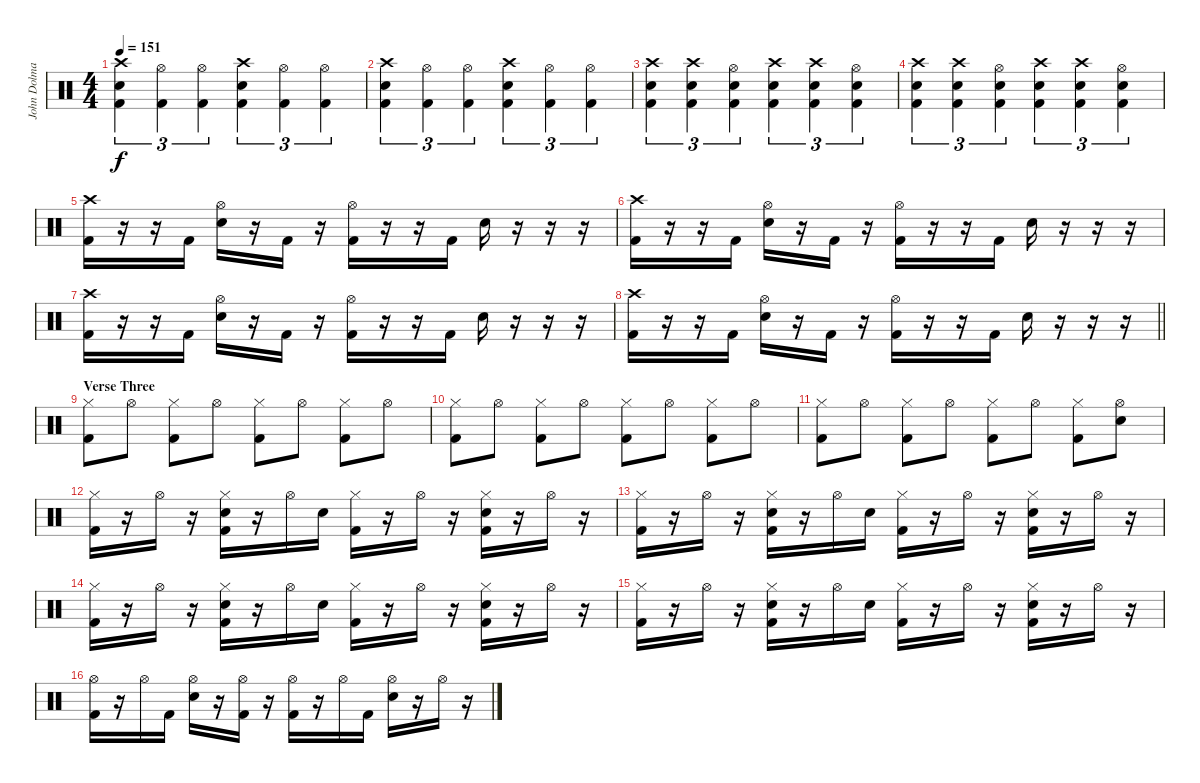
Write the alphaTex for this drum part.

\track ("John Dolmayan" "John Dolma") {instrument percussion}
\staff {score}
\articulation defaults
\ts (4 4)
\tempo 151
\clef neutral
\ks c
("Crash high (hit)" "Snare (hit) 2" "Kick (hit) 2").4{tu (3 2) dy f} ("Hi-Hat (open)" "Kick (hit) 2").4{tu (3 2)} ("Hi-Hat (open)" "Kick (hit) 2").4{tu (3 2)} ("Crash high (hit)" "Snare (hit) 2" "Kick (hit) 2").4{tu (3 2)} ("Hi-Hat (open)" "Kick (hit) 2").4{tu (3 2)} ("Hi-Hat (open)" "Kick (hit) 2").4{tu (3 2)} |
("Crash high (hit)" "Snare (hit) 2" "Kick (hit) 2").4{tu (3 2)} ("Hi-Hat (open)" "Kick (hit) 2").4{tu (3 2)} ("Hi-Hat (open)" "Kick (hit) 2").4{tu (3 2)} ("Crash high (hit)" "Snare (hit) 2" "Kick (hit) 2").4{tu (3 2)} ("Hi-Hat (open)" "Kick (hit) 2").4{tu (3 2)} ("Hi-Hat (open)" "Kick (hit) 2").4{tu (3 2)} |
("Crash high (hit)" "Snare (hit) 2" "Kick (hit) 2").4{tu (3 2)} ("Crash high (hit)" "Snare (hit) 2" "Kick (hit) 2").4{tu (3 2)} ("Hi-Hat (open)" "Snare (hit) 2" "Kick (hit) 2").4{tu (3 2)} ("Crash high (hit)" "Snare (hit) 2" "Kick (hit) 2").4{tu (3 2)} ("Crash high (hit)" "Snare (hit) 2" "Kick (hit) 2").4{tu (3 2)} ("Hi-Hat (open)" "Snare (hit) 2" "Kick (hit) 2").4{tu (3 2)} |
("Crash high (hit)" "Snare (hit) 2" "Kick (hit) 2").4{tu (3 2)} ("Crash high (hit)" "Snare (hit) 2" "Kick (hit) 2").4{tu (3 2)} ("Hi-Hat (open)" "Snare (hit) 2" "Kick (hit) 2").4{tu (3 2)} ("Crash high (hit)" "Snare (hit) 2" "Kick (hit) 2").4{tu (3 2)} ("Crash high (hit)" "Snare (hit) 2" "Kick (hit) 2").4{tu (3 2)} ("Hi-Hat (open)" "Snare (hit) 2" "Kick (hit) 2").4{tu (3 2)} |
("Crash high (hit)" "Kick (hit) 2").16 r.16 r.16 "Kick (hit) 2".16 ("Hi-Hat (open)" "Snare (hit) 2").16 r.16 "Kick (hit) 2".16 r.16 ("Hi-Hat (open)" "Kick (hit) 2").16 r.16 r.16 "Kick (hit) 2".16 "Electric Snare (hit)".16 r.16 r.16 r.16 |
("Crash high (hit)" "Kick (hit) 2").16 r.16 r.16 "Kick (hit) 2".16 ("Hi-Hat (open)" "Snare (hit) 2").16 r.16 "Kick (hit) 2".16 r.16 ("Hi-Hat (open)" "Kick (hit) 2").16 r.16 r.16 "Kick (hit) 2".16 "Electric Snare (hit)".16 r.16 r.16 r.16 |
("Crash high (hit)" "Kick (hit) 2").16 r.16 r.16 "Kick (hit) 2".16 ("Hi-Hat (open)" "Snare (hit) 2").16 r.16 "Kick (hit) 2".16 r.16 ("Hi-Hat (open)" "Kick (hit) 2").16 r.16 r.16 "Kick (hit) 2".16 "Electric Snare (hit)".16 r.16 r.16 r.16 |
\barLineRight lightlight
("Crash high (hit)" "Kick (hit) 2").16 r.16 r.16 "Kick (hit) 2".16 ("Hi-Hat (open)" "Snare (hit) 2").16 r.16 "Kick (hit) 2".16 r.16 ("Hi-Hat (open)" "Kick (hit) 2").16 r.16 r.16 "Kick (hit) 2".16 "Electric Snare (hit)".16 r.16 r.16 r.16 |
\section ("" "Verse Three")
("Hi-Hat (closed)" "Kick (hit) 2").8 "Hi-Hat (open)".8 ("Hi-Hat (closed)" "Kick (hit) 2").8 "Hi-Hat (open)".8 ("Hi-Hat (closed)" "Kick (hit) 2").8 "Hi-Hat (open)".8 ("Hi-Hat (closed)" "Kick (hit) 2").8 "Hi-Hat (open)".8 |
("Hi-Hat (closed)" "Kick (hit) 2").8 "Hi-Hat (open)".8 ("Hi-Hat (closed)" "Kick (hit) 2").8 "Hi-Hat (open)".8 ("Hi-Hat (closed)" "Kick (hit) 2").8 "Hi-Hat (open)".8 ("Hi-Hat (closed)" "Kick (hit) 2").8 "Hi-Hat (open)".8 |
("Hi-Hat (closed)" "Kick (hit) 2").8 "Hi-Hat (open)".8 ("Hi-Hat (closed)" "Kick (hit) 2").8 "Hi-Hat (open)".8 ("Hi-Hat (closed)" "Kick (hit) 2").8 "Hi-Hat (open)".8 ("Hi-Hat (closed)" "Kick (hit) 2").8 ("Hi-Hat (open)" "Snare (hit) 2").8 |
("Hi-Hat (closed)" "Kick (hit) 2").16 r.16 "Hi-Hat (open)".16 r.16 ("Hi-Hat (closed)" "Snare (hit) 2" "Kick (hit) 2").16 r.16 "Hi-Hat (open)".16 "Snare (hit) 2".16 ("Hi-Hat (closed)" "Kick (hit) 2").16 r.16 "Hi-Hat (open)".16 r.16 ("Hi-Hat (closed)" "Snare (hit) 2" "Kick (hit) 2").16 r.16 "Hi-Hat (open)".16 r.16 |
("Hi-Hat (closed)" "Kick (hit) 2").16 r.16 "Hi-Hat (open)".16 r.16 ("Hi-Hat (closed)" "Snare (hit) 2" "Kick (hit) 2").16 r.16 "Hi-Hat (open)".16 "Snare (hit) 2".16 ("Hi-Hat (closed)" "Kick (hit) 2").16 r.16 "Hi-Hat (open)".16 r.16 ("Hi-Hat (closed)" "Snare (hit) 2" "Kick (hit) 2").16 r.16 "Hi-Hat (open)".16 r.16 |
("Hi-Hat (closed)" "Kick (hit) 2").16 r.16 "Hi-Hat (open)".16 r.16 ("Hi-Hat (closed)" "Snare (hit) 2" "Kick (hit) 2").16 r.16 "Hi-Hat (open)".16 "Snare (hit) 2".16 ("Hi-Hat (closed)" "Kick (hit) 2").16 r.16 "Hi-Hat (open)".16 r.16 ("Hi-Hat (closed)" "Snare (hit) 2" "Kick (hit) 2").16 r.16 "Hi-Hat (open)".16 r.16 |
("Hi-Hat (closed)" "Kick (hit) 2").16 r.16 "Hi-Hat (open)".16 r.16 ("Hi-Hat (closed)" "Snare (hit) 2" "Kick (hit) 2").16 r.16 "Hi-Hat (open)".16 "Snare (hit) 2".16 ("Hi-Hat (closed)" "Kick (hit) 2").16 r.16 "Hi-Hat (open)".16 r.16 ("Hi-Hat (closed)" "Snare (hit) 2" "Kick (hit) 2").16 r.16 "Hi-Hat (open)".16 r.16 |
("Hi-Hat (open)" "Kick (hit) 2").16 r.16 "Hi-Hat (open)".16 "Kick (hit) 2".16 ("Hi-Hat (open)" "Snare (hit) 2").16 r.16 ("Hi-Hat (open)" "Kick (hit) 2").16 r.16 ("Hi-Hat (open)" "Kick (hit) 2").16 r.16 "Hi-Hat (open)".16 "Kick (hit) 2".16 ("Hi-Hat (open)" "Snare (hit) 2").16 r.16 "Hi-Hat (open)".16 r.16
